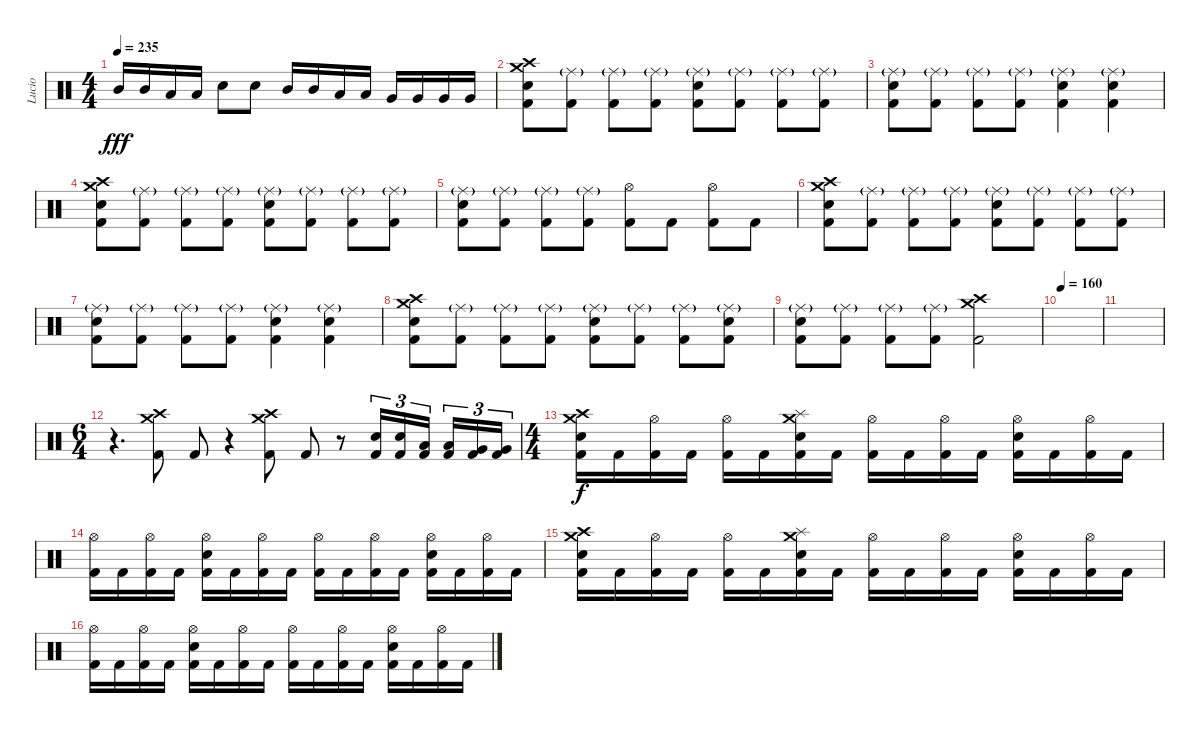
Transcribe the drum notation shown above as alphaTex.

\track ("Lucio" "Lucio") {instrument percussion}
\staff {score}
\articulation defaults
\ts (4 4)
\tempo 235
\clef neutral
\ks c "Mid Tom (hit)".16{dy fff} "Mid Tom (hit)".16 "Low Tom (hit)".16 "Low Tom (hit)".16 "Electric Snare (hit)".8 "Electric Snare (hit)".8 "Mid Tom (hit)".16 "Mid Tom (hit)".16 "Low Tom (hit)".16 "Low Tom (hit)".16 "Very Low Tom (hit)".16 "Very Low Tom (hit)".16 "Very Low Tom (hit)".16 "Very Low Tom (hit)".16
|
("Crash medium (hit)" "Crash high (hit)" "Electric Snare (hit)" "Kick (hit) 2").8 ("Ride (middle)"{g} "Kick (hit) 2").8 ("Ride (middle)"{g} "Kick (hit) 2").8 ("Ride (middle)"{g} "Kick (hit) 2").8 ("Ride (middle)"{g} "Electric Snare (hit)" "Kick (hit) 2").8 ("Ride (middle)"{g} "Kick (hit) 2").8 ("Ride (middle)"{g} "Kick (hit) 2").8 ("Ride (middle)"{g} "Kick (hit) 2").8 |
("Ride (middle)"{g} "Electric Snare (hit)" "Kick (hit) 2").8 ("Ride (middle)"{g} "Kick (hit) 2").8 ("Ride (middle)"{g} "Kick (hit) 2").8 ("Ride (middle)"{g} "Kick (hit) 2").8 ("Ride (middle)"{g} "Electric Snare (hit)" "Kick (hit) 2").4 ("Ride (middle)"{g} "Electric Snare (hit)" "Kick (hit) 2").4 |
("Crash medium (hit)" "Crash high (hit)" "Electric Snare (hit)" "Kick (hit) 2").8 ("Ride (middle)"{g} "Kick (hit) 2").8 ("Ride (middle)"{g} "Kick (hit) 2").8 ("Ride (middle)"{g} "Kick (hit) 2").8 ("Ride (middle)"{g} "Electric Snare (hit)" "Kick (hit) 2").8 ("Ride (middle)"{g} "Kick (hit) 2").8 ("Ride (middle)"{g} "Kick (hit) 2").8 ("Ride (middle)"{g} "Kick (hit) 2").8 |
("Ride (middle)"{g} "Electric Snare (hit)" "Kick (hit) 2").8 ("Ride (middle)"{g} "Kick (hit) 2").8 ("Ride (middle)"{g} "Kick (hit) 2").8 ("Ride (middle)"{g} "Kick (hit) 2").8 ("Hi-Hat (open)" "Kick (hit) 2").8 "Kick (hit) 2".8 ("Hi-Hat (open)" "Kick (hit) 2").8 "Kick (hit) 2".8 |
("Crash medium (hit)" "Crash high (hit)" "Electric Snare (hit)" "Kick (hit) 2").8 ("Ride (middle)"{g} "Kick (hit) 2").8 ("Ride (middle)"{g} "Kick (hit) 2").8 ("Ride (middle)"{g} "Kick (hit) 2").8 ("Ride (middle)"{g} "Electric Snare (hit)" "Kick (hit) 2").8 ("Ride (middle)"{g} "Kick (hit) 2").8 ("Ride (middle)"{g} "Kick (hit) 2").8 ("Ride (middle)"{g} "Kick (hit) 2").8 |
("Ride (middle)"{g} "Electric Snare (hit)" "Kick (hit) 2").8 ("Ride (middle)"{g} "Kick (hit) 2").8 ("Ride (middle)"{g} "Kick (hit) 2").8 ("Ride (middle)"{g} "Kick (hit) 2").8 ("Ride (middle)"{g} "Electric Snare (hit)" "Kick (hit) 2").4 ("Ride (middle)"{g} "Electric Snare (hit)" "Kick (hit) 2").4 |
("Crash medium (hit)" "Crash high (hit)" "Electric Snare (hit)" "Kick (hit) 2").8 ("Ride (middle)"{g} "Kick (hit) 2").8 ("Ride (middle)"{g} "Kick (hit) 2").8 ("Ride (middle)"{g} "Kick (hit) 2").8 ("Ride (middle)"{g} "Electric Snare (hit)" "Kick (hit) 2").8 ("Ride (middle)"{g} "Kick (hit) 2").8 ("Ride (middle)"{g} "Kick (hit) 2").8 ("Ride (middle)"{g} "Electric Snare (hit)" "Kick (hit) 2").8 |
("Ride (middle)"{g} "Electric Snare (hit)" "Kick (hit) 2").8 ("Ride (middle)"{g} "Kick (hit) 2").8 ("Ride (middle)"{g} "Kick (hit) 2").8 ("Ride (middle)"{g} "Kick (hit) 2").8 ("Crash medium (hit)" "Crash high (hit)" "Kick (hit) 2").2 |
\tempo 160
|
|
\ts (6 4)
r.4{d} ("Crash medium (hit)" "Crash high (hit)" "Kick (hit) 2").8 "Kick (hit) 2".8 r.4{volume 0} ("Crash medium (hit)" "Crash high (hit)" "Kick (hit) 2").8{volume 16} "Kick (hit) 2".8 r.8{volume 0} ("Electric Snare (hit)" "Kick (hit) 2").16{tu (3 2) volume 16} ("Electric Snare (hit)" "Kick (hit) 2").16{tu (3 2)} ("Low Tom (hit)" "Kick (hit) 2").16{tu (3 2) beam splitsecondary} ("Low Tom (hit)" "Kick (hit) 2").16{tu (3 2)} ("Very Low Tom (hit)" "Kick (hit) 2").16{tu (3 2)} ("Very Low Tom (hit)" "Kick (hit) 2").16{tu (3 2)} |
\ts (4 4)
("Crash medium (hit)" "Crash high (hit)" "Electric Snare (hit)" "Kick (hit) 2").16{dy f} "Kick (hit) 2".16 ("Hi-Hat (open)" "Kick (hit) 2").16 "Kick (hit) 2".16 ("Hi-Hat (open)" "Kick (hit) 2").16 "Kick (hit) 2".16 ("Crash medium (hit)" "Splash (hit)" "Electric Snare (hit)" "Kick (hit) 2").16 "Kick (hit) 2".16 ("Hi-Hat (open)" "Kick (hit) 2").16 "Kick (hit) 2".16 ("Hi-Hat (open)" "Kick (hit) 2").16 "Kick (hit) 2".16 ("Hi-Hat (open)" "Electric Snare (hit)" "Kick (hit) 2").16 "Kick (hit) 2".16 ("Hi-Hat (open)" "Kick (hit) 2").16 "Kick (hit) 2".16 |
("Hi-Hat (open)" "Kick (hit) 2").16 "Kick (hit) 2".16 ("Hi-Hat (open)" "Kick (hit) 2").16 "Kick (hit) 2".16 ("Hi-Hat (open)" "Electric Snare (hit)" "Kick (hit) 2").16 "Kick (hit) 2".16 ("Hi-Hat (open)" "Kick (hit) 2").16 "Kick (hit) 2".16 ("Hi-Hat (open)" "Kick (hit) 2").16 "Kick (hit) 2".16 ("Hi-Hat (open)" "Kick (hit) 2").16 "Kick (hit) 2".16 ("Hi-Hat (open)" "Electric Snare (hit)" "Kick (hit) 2").16 "Kick (hit) 2".16 ("Hi-Hat (open)" "Kick (hit) 2").16 "Kick (hit) 2".16 |
("Crash medium (hit)" "Crash high (hit)" "Electric Snare (hit)" "Kick (hit) 2").16 "Kick (hit) 2".16 ("Hi-Hat (open)" "Kick (hit) 2").16 "Kick (hit) 2".16 ("Hi-Hat (open)" "Kick (hit) 2").16 "Kick (hit) 2".16 ("Crash medium (hit)" "Splash (hit)" "Electric Snare (hit)" "Kick (hit) 2").16 "Kick (hit) 2".16 ("Hi-Hat (open)" "Kick (hit) 2").16 "Kick (hit) 2".16 ("Hi-Hat (open)" "Kick (hit) 2").16 "Kick (hit) 2".16 ("Hi-Hat (open)" "Electric Snare (hit)" "Kick (hit) 2").16 "Kick (hit) 2".16 ("Hi-Hat (open)" "Kick (hit) 2").16 "Kick (hit) 2".16 |
("Hi-Hat (open)" "Kick (hit) 2").16 "Kick (hit) 2".16 ("Hi-Hat (open)" "Kick (hit) 2").16 "Kick (hit) 2".16 ("Hi-Hat (open)" "Electric Snare (hit)" "Kick (hit) 2").16 "Kick (hit) 2".16 ("Hi-Hat (open)" "Kick (hit) 2").16 "Kick (hit) 2".16 ("Hi-Hat (open)" "Kick (hit) 2").16 "Kick (hit) 2".16 ("Hi-Hat (open)" "Kick (hit) 2").16 "Kick (hit) 2".16 ("Hi-Hat (open)" "Electric Snare (hit)" "Kick (hit) 2").16 "Kick (hit) 2".16 ("Hi-Hat (open)" "Kick (hit) 2").16 "Kick (hit) 2".16
